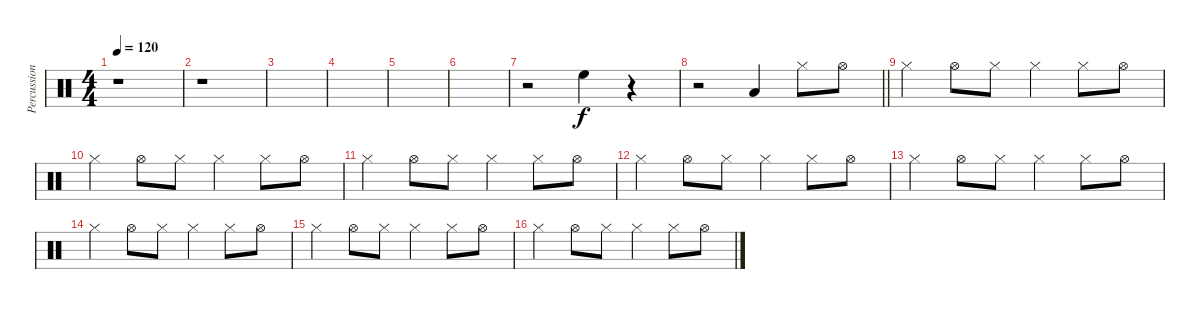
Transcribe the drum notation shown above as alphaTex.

\track ("Percussion" "Percussion") {instrument percussion}
\staff {score}
\articulation defaults
\ts (4 4)
\tempo 120
\clef neutral
\ks aminor
r.1{dy f} |
r.1 |
|
|
|
|
r.2 "High Floor Tom (hit)".4 r.4 |
\barLineRight lightlight
r.2 "Low Floor Tom (hit)".4 "Hi-Hat (closed)".8 "Hi-Hat (open)".8 |
"Hi-Hat (closed)".4 "Hi-Hat (open)".8 "Hi-Hat (closed)".8 "Hi-Hat (closed)".4 "Hi-Hat (closed)".8 "Hi-Hat (open)".8 |
"Hi-Hat (closed)".4 "Hi-Hat (open)".8 "Hi-Hat (closed)".8 "Hi-Hat (closed)".4 "Hi-Hat (closed)".8 "Hi-Hat (open)".8 |
"Hi-Hat (closed)".4 "Hi-Hat (open)".8 "Hi-Hat (closed)".8 "Hi-Hat (closed)".4 "Hi-Hat (closed)".8 "Hi-Hat (open)".8 |
"Hi-Hat (closed)".4 "Hi-Hat (open)".8 "Hi-Hat (closed)".8 "Hi-Hat (closed)".4 "Hi-Hat (closed)".8 "Hi-Hat (open)".8 |
"Hi-Hat (closed)".4 "Hi-Hat (open)".8 "Hi-Hat (closed)".8 "Hi-Hat (closed)".4 "Hi-Hat (closed)".8 "Hi-Hat (open)".8 |
"Hi-Hat (closed)".4 "Hi-Hat (open)".8 "Hi-Hat (closed)".8 "Hi-Hat (closed)".4 "Hi-Hat (closed)".8 "Hi-Hat (open)".8 |
"Hi-Hat (closed)".4 "Hi-Hat (open)".8 "Hi-Hat (closed)".8 "Hi-Hat (closed)".4 "Hi-Hat (closed)".8 "Hi-Hat (open)".8 |
"Hi-Hat (closed)".4 "Hi-Hat (open)".8 "Hi-Hat (closed)".8 "Hi-Hat (closed)".4 "Hi-Hat (closed)".8 "Hi-Hat (open)".8
